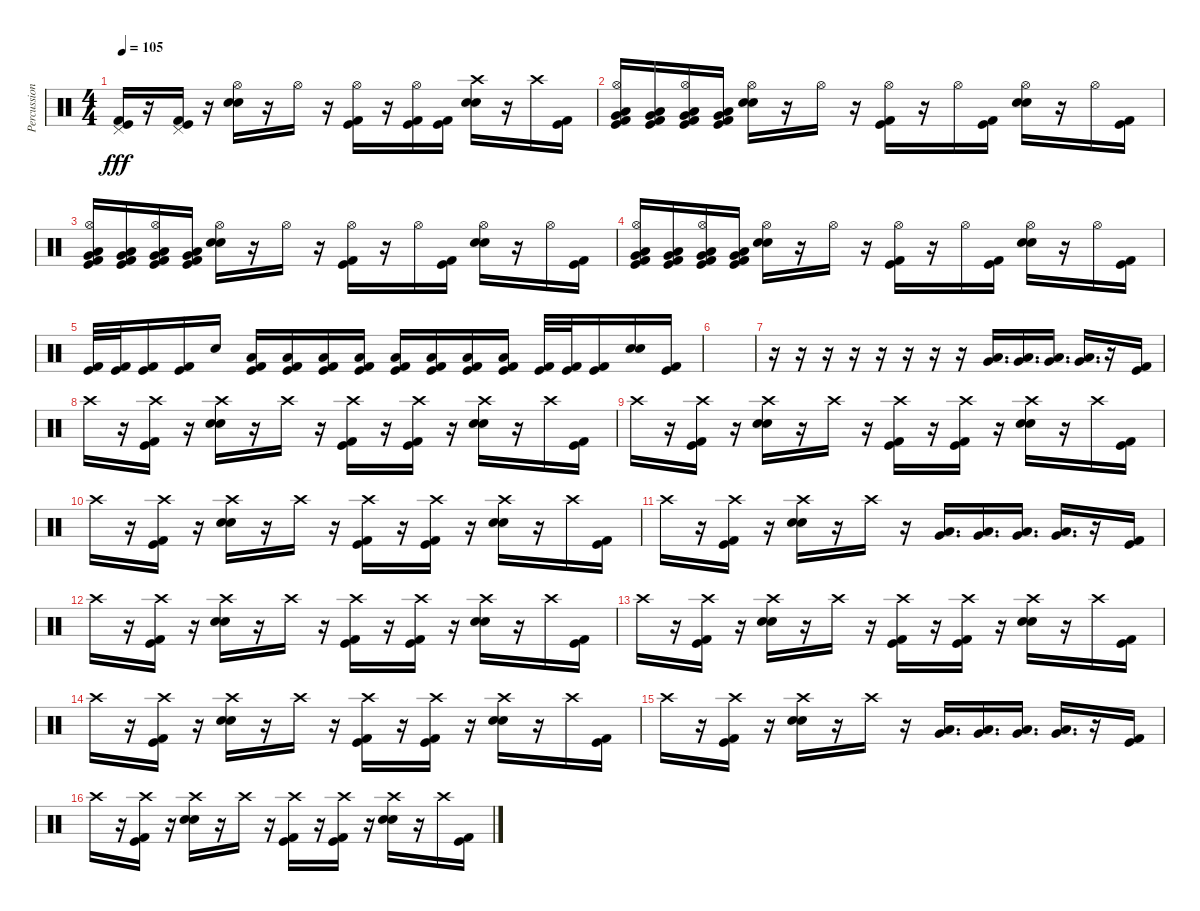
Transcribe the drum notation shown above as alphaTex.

\track ("Percussion" "Percussion") {instrument percussion}
\staff {score}
\articulation defaults
\ts (4 4)
\tempo 105
\clef neutral
\ks c
("Kick (hit)" "Pedal Hi-Hat (hit)" "Kick (hit) 2").16{dy fff} r.16 ("Kick (hit)" "Pedal Hi-Hat (hit)" "Kick (hit) 2").16 r.16 ("Snare (hit) 2" "Hi-Hat (open)" "Electric Snare (hit)").16 r.16 "Hi-Hat (open)".16 r.16 ("Kick (hit)" "Hi-Hat (open)" "Kick (hit) 2").16 r.16 ("Kick (hit)" "Hi-Hat (open)" "Kick (hit) 2").16 ("Kick (hit)" "Kick (hit) 2").16 ("Snare (hit) 2" "Crash high (hit)" "Electric Snare (hit)").16 r.16 "Crash high (hit)".16 ("Kick (hit)" "Kick (hit) 2").16 |
("Kick (hit)" "Hi-Hat (open)" "Very Low Tom (hit)" "Low Tom (hit)" "Kick (hit) 2").16 ("Kick (hit)" "Low Floor Tom (hit)" "Very Low Tom (hit)" "Kick (hit) 2").16 ("Kick (hit)" "Hi-Hat (open)" "Very Low Tom (hit)" "Low Tom (hit)" "Kick (hit) 2").16 ("Kick (hit)" "Low Floor Tom (hit)" "Very Low Tom (hit)" "Kick (hit) 2").16 ("Snare (hit) 2" "Hi-Hat (open)" "Electric Snare (hit)").16 r.16 "Hi-Hat (open)".16 r.16 ("Kick (hit)" "Hi-Hat (open)" "Kick (hit) 2").16 r.16 "Hi-Hat (open)".16 ("Kick (hit)" "Kick (hit) 2").16 ("Snare (hit) 2" "Hi-Hat (open)" "Electric Snare (hit)").16 r.16 "Hi-Hat (open)".16 ("Kick (hit)" "Kick (hit) 2").16 |
("Kick (hit)" "Hi-Hat (open)" "Very Low Tom (hit)" "Low Tom (hit)" "Kick (hit) 2").16 ("Kick (hit)" "Low Floor Tom (hit)" "Very Low Tom (hit)" "Kick (hit) 2").16 ("Kick (hit)" "Hi-Hat (open)" "Very Low Tom (hit)" "Low Tom (hit)" "Kick (hit) 2").16 ("Kick (hit)" "Low Floor Tom (hit)" "Very Low Tom (hit)" "Kick (hit) 2").16 ("Snare (hit) 2" "Hi-Hat (open)" "Electric Snare (hit)").16 r.16 "Hi-Hat (open)".16 r.16 ("Kick (hit)" "Hi-Hat (open)" "Kick (hit) 2").16 r.16 "Hi-Hat (open)".16 ("Kick (hit)" "Kick (hit) 2").16 ("Snare (hit) 2" "Hi-Hat (open)" "Electric Snare (hit)").16 r.16 "Hi-Hat (open)".16 ("Kick (hit)" "Kick (hit) 2").16 |
("Kick (hit)" "Hi-Hat (open)" "Very Low Tom (hit)" "Low Tom (hit)" "Kick (hit) 2").16 ("Kick (hit)" "Low Floor Tom (hit)" "Very Low Tom (hit)" "Kick (hit) 2").16 ("Kick (hit)" "Hi-Hat (open)" "Very Low Tom (hit)" "Low Tom (hit)" "Kick (hit) 2").16 ("Kick (hit)" "Low Floor Tom (hit)" "Very Low Tom (hit)" "Kick (hit) 2").16 ("Snare (hit) 2" "Hi-Hat (open)" "Electric Snare (hit)").16 r.16 "Hi-Hat (open)".16 r.16 ("Kick (hit)" "Hi-Hat (open)" "Kick (hit) 2").16 r.16 "Hi-Hat (open)".16 ("Kick (hit)" "Kick (hit) 2").16 ("Snare (hit) 2" "Hi-Hat (open)" "Electric Snare (hit)").16 r.16 "Hi-Hat (open)".16 ("Kick (hit)" "Kick (hit) 2").16 |
("Kick (hit)" "Kick (hit) 2").32 ("Kick (hit)" "Kick (hit) 2").32 ("Kick (hit)" "Kick (hit) 2").16 ("Kick (hit)" "Kick (hit) 2").16 "Electric Snare (hit)".16 ("Kick (hit)" "Low Floor Tom (hit)" "Kick (hit) 2").16 ("Kick (hit)" "Low Floor Tom (hit)" "Kick (hit) 2").16 ("Kick (hit)" "Low Floor Tom (hit)" "Kick (hit) 2").16 ("Kick (hit)" "Low Floor Tom (hit)" "Kick (hit) 2").16 ("Kick (hit)" "Low Floor Tom (hit)" "Kick (hit) 2").16 ("Kick (hit)" "Low Floor Tom (hit)" "Kick (hit) 2").16 ("Kick (hit)" "Low Floor Tom (hit)" "Kick (hit) 2").16 ("Kick (hit)" "Low Floor Tom (hit)" "Kick (hit) 2").16 ("Kick (hit)" "Kick (hit) 2").32 ("Kick (hit)" "Kick (hit) 2").32 ("Kick (hit)" "Kick (hit) 2").16 ("Snare (hit) 2" "Electric Snare (hit)").16 ("Kick (hit)" "Kick (hit) 2").16 |
|
r.16 r.16 r.16 r.16 r.16 r.16 r.16 r.16 ("Very Low Tom (hit)" "Low Floor Tom (hit)").16{d} ("Very Low Tom (hit)" "Low Floor Tom (hit)").16{d} ("Very Low Tom (hit)" "Low Floor Tom (hit)").16{d} ("Low Tom (hit)" "Very Low Tom (hit)").16{d} r.16 ("Kick (hit)" "Kick (hit) 2").16 |
"Crash high (hit)".16 r.16 ("Kick (hit)" "Crash high (hit)" "Kick (hit) 2").16 r.16 ("Snare (hit) 2" "Crash high (hit)" "Electric Snare (hit)").16 r.16 "Crash high (hit)".16 r.16 ("Kick (hit)" "Crash high (hit)" "Kick (hit) 2").16 r.16 ("Kick (hit)" "Crash high (hit)" "Kick (hit) 2").16 r.16 ("Snare (hit) 2" "Crash high (hit)" "Electric Snare (hit)").16 r.16 "Crash high (hit)".16 ("Kick (hit)" "Kick (hit) 2").16 |
"Crash high (hit)".16 r.16 ("Kick (hit)" "Crash high (hit)" "Kick (hit) 2").16 r.16 ("Snare (hit) 2" "Crash high (hit)" "Electric Snare (hit)").16 r.16 "Crash high (hit)".16 r.16 ("Kick (hit)" "Crash high (hit)" "Kick (hit) 2").16 r.16 ("Kick (hit)" "Crash high (hit)" "Kick (hit) 2").16 r.16 ("Snare (hit) 2" "Crash high (hit)" "Electric Snare (hit)").16 r.16 "Crash high (hit)".16 ("Kick (hit)" "Kick (hit) 2").16 |
"Crash high (hit)".16 r.16 ("Kick (hit)" "Crash high (hit)" "Kick (hit) 2").16 r.16 ("Snare (hit) 2" "Crash high (hit)" "Electric Snare (hit)").16 r.16 "Crash high (hit)".16 r.16 ("Kick (hit)" "Crash high (hit)" "Kick (hit) 2").16 r.16 ("Kick (hit)" "Crash high (hit)" "Kick (hit) 2").16 r.16 ("Snare (hit) 2" "Crash high (hit)" "Electric Snare (hit)").16 r.16 "Crash high (hit)".16 ("Kick (hit)" "Kick (hit) 2").16 |
"Crash high (hit)".16 r.16 ("Kick (hit)" "Crash high (hit)" "Kick (hit) 2").16 r.16 ("Snare (hit) 2" "Crash high (hit)" "Electric Snare (hit)").16 r.16 "Crash high (hit)".16 r.16 ("Very Low Tom (hit)" "Low Floor Tom (hit)").16{d} ("Very Low Tom (hit)" "Low Floor Tom (hit)").16{d} ("Very Low Tom (hit)" "Low Floor Tom (hit)").16{d} ("Low Tom (hit)" "Very Low Tom (hit)").16{d} r.16 ("Kick (hit)" "Kick (hit) 2").16 |
"Crash high (hit)".16 r.16 ("Kick (hit)" "Crash high (hit)" "Kick (hit) 2").16 r.16 ("Snare (hit) 2" "Crash high (hit)" "Electric Snare (hit)").16 r.16 "Crash high (hit)".16 r.16 ("Kick (hit)" "Crash high (hit)" "Kick (hit) 2").16 r.16 ("Kick (hit)" "Crash high (hit)" "Kick (hit) 2").16 r.16 ("Snare (hit) 2" "Crash high (hit)" "Electric Snare (hit)").16 r.16 "Crash high (hit)".16 ("Kick (hit)" "Kick (hit) 2").16 |
"Crash high (hit)".16 r.16 ("Kick (hit)" "Crash high (hit)" "Kick (hit) 2").16 r.16 ("Snare (hit) 2" "Crash high (hit)" "Electric Snare (hit)").16 r.16 "Crash high (hit)".16 r.16 ("Kick (hit)" "Crash high (hit)" "Kick (hit) 2").16 r.16 ("Kick (hit)" "Crash high (hit)" "Kick (hit) 2").16 r.16 ("Snare (hit) 2" "Crash high (hit)" "Electric Snare (hit)").16 r.16 "Crash high (hit)".16 ("Kick (hit)" "Kick (hit) 2").16 |
"Crash high (hit)".16 r.16 ("Kick (hit)" "Crash high (hit)" "Kick (hit) 2").16 r.16 ("Snare (hit) 2" "Crash high (hit)" "Electric Snare (hit)").16 r.16 "Crash high (hit)".16 r.16 ("Kick (hit)" "Crash high (hit)" "Kick (hit) 2").16 r.16 ("Kick (hit)" "Crash high (hit)" "Kick (hit) 2").16 r.16 ("Snare (hit) 2" "Crash high (hit)" "Electric Snare (hit)").16 r.16 "Crash high (hit)".16 ("Kick (hit)" "Kick (hit) 2").16 |
"Crash high (hit)".16 r.16 ("Kick (hit)" "Crash high (hit)" "Kick (hit) 2").16 r.16 ("Snare (hit) 2" "Crash high (hit)" "Electric Snare (hit)").16 r.16 "Crash high (hit)".16 r.16 ("Very Low Tom (hit)" "Low Floor Tom (hit)").16{d} ("Very Low Tom (hit)" "Low Floor Tom (hit)").16{d} ("Very Low Tom (hit)" "Low Floor Tom (hit)").16{d} ("Low Tom (hit)" "Very Low Tom (hit)").16{d} r.16 ("Kick (hit)" "Kick (hit) 2").16 |
"Crash high (hit)".16 r.16 ("Kick (hit)" "Crash high (hit)" "Kick (hit) 2").16 r.16 ("Snare (hit) 2" "Crash high (hit)" "Electric Snare (hit)").16 r.16 "Crash high (hit)".16 r.16 ("Kick (hit)" "Crash high (hit)" "Kick (hit) 2").16 r.16 ("Kick (hit)" "Crash high (hit)" "Kick (hit) 2").16 r.16 ("Snare (hit) 2" "Crash high (hit)" "Electric Snare (hit)").16 r.16 "Crash high (hit)".16 ("Kick (hit)" "Kick (hit) 2").16
